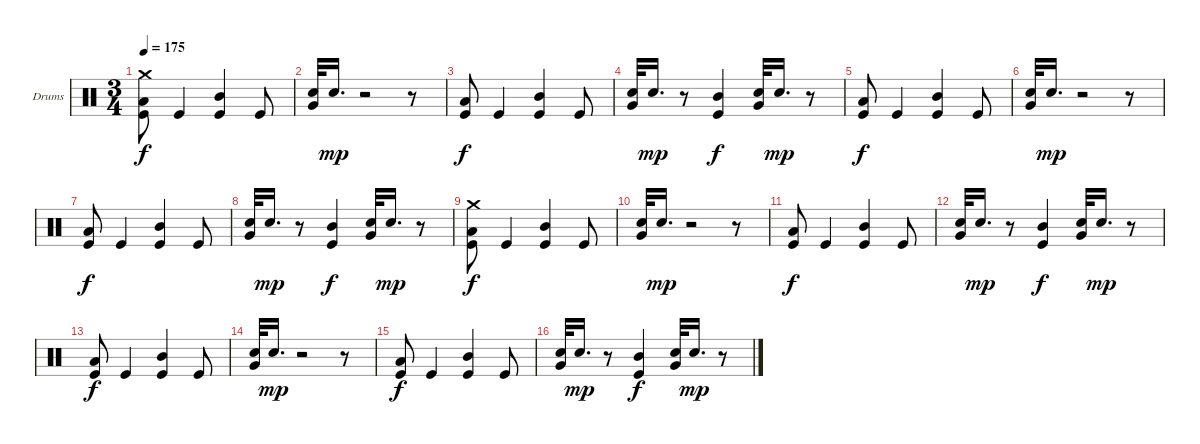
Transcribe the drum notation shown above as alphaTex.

\bracketExtendMode groupsimilarinstruments
\firstSystemTrackNameOrientation horizontal
\otherSystemsTrackNameOrientation horizontal
\track ("Drums" "Drums") {instrument percussion}
\staff {score}
\articulation defaults
\ts (3 4)
\tempo 175
\clef neutral
\ks c
("Crash medium (hit)" "Low Tom (hit)" "Kick (hit)").8{dy f} "Kick (hit)".4 ("Mid Tom (hit)" "Kick (hit)").4 "Kick (hit)".8 |
("Very Low Tom (hit)" "Snare (hit) 2").32 "Snare (hit) 2".16{d dy mp} r.2 r.8 |
("Low Tom (hit)" "Kick (hit)").8{dy f} "Kick (hit)".4 ("Mid Tom (hit)" "Kick (hit)").4 "Kick (hit)".8 |
("Very Low Tom (hit)" "Snare (hit) 2").32 "Snare (hit) 2".16{d dy mp} r.8 ("Mid Tom (hit)" "Kick (hit)").4{dy f} ("Very Low Tom (hit)" "Snare (hit) 2").32 "Snare (hit) 2".16{d dy mp} r.8 |
("Low Tom (hit)" "Kick (hit)").8{dy f} "Kick (hit)".4 ("Mid Tom (hit)" "Kick (hit)").4 "Kick (hit)".8 |
("Very Low Tom (hit)" "Snare (hit) 2").32 "Snare (hit) 2".16{d dy mp} r.2 r.8 |
("Low Tom (hit)" "Kick (hit)").8{dy f} "Kick (hit)".4 ("Mid Tom (hit)" "Kick (hit)").4 "Kick (hit)".8 |
("Very Low Tom (hit)" "Snare (hit) 2").32 "Snare (hit) 2".16{d dy mp} r.8 ("Mid Tom (hit)" "Kick (hit)").4{dy f} ("Very Low Tom (hit)" "Snare (hit) 2").32 "Snare (hit) 2".16{d dy mp} r.8 |
("Crash medium (hit)" "Low Tom (hit)" "Kick (hit)").8{dy f} "Kick (hit)".4 ("Mid Tom (hit)" "Kick (hit)").4 "Kick (hit)".8 |
("Very Low Tom (hit)" "Snare (hit) 2").32 "Snare (hit) 2".16{d dy mp} r.2 r.8 |
("Low Tom (hit)" "Kick (hit)").8{dy f} "Kick (hit)".4 ("Mid Tom (hit)" "Kick (hit)").4 "Kick (hit)".8 |
("Very Low Tom (hit)" "Snare (hit) 2").32 "Snare (hit) 2".16{d dy mp} r.8 ("Mid Tom (hit)" "Kick (hit)").4{dy f} ("Very Low Tom (hit)" "Snare (hit) 2").32 "Snare (hit) 2".16{d dy mp} r.8 |
("Low Tom (hit)" "Kick (hit)").8{dy f} "Kick (hit)".4 ("Mid Tom (hit)" "Kick (hit)").4 "Kick (hit)".8 |
("Very Low Tom (hit)" "Snare (hit) 2").32 "Snare (hit) 2".16{d dy mp} r.2 r.8 |
("Low Tom (hit)" "Kick (hit)").8{dy f} "Kick (hit)".4 ("Mid Tom (hit)" "Kick (hit)").4 "Kick (hit)".8 |
("Very Low Tom (hit)" "Snare (hit) 2").32 "Snare (hit) 2".16{d dy mp} r.8 ("Mid Tom (hit)" "Kick (hit)").4{dy f} ("Very Low Tom (hit)" "Snare (hit) 2").32 "Snare (hit) 2".16{d dy mp} r.8
